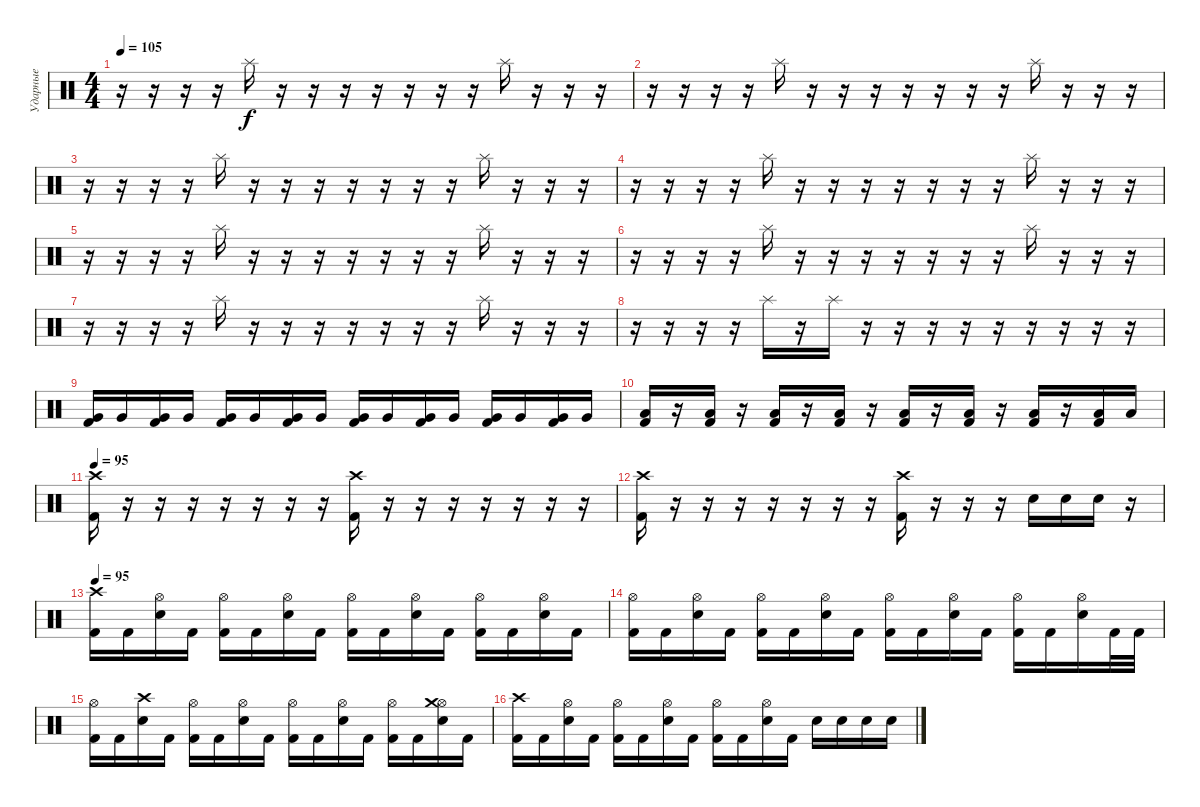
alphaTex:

\track ("Ударные" "Ударные") {instrument percussion}
\staff {score}
\articulation defaults
\ts (4 4)
\tempo 105
\clef neutral
\ks c
r.16{dy f} r.16 r.16 r.16 "Splash (hit)".16 r.16 r.16 r.16 r.16 r.16 r.16 r.16 "Splash (hit)".16 r.16 r.16 r.16 |
r.16 r.16 r.16 r.16 "Splash (hit)".16 r.16 r.16 r.16 r.16 r.16 r.16 r.16 "Splash (hit)".16 r.16 r.16 r.16 |
r.16 r.16 r.16 r.16 "Splash (hit)".16 r.16 r.16 r.16 r.16 r.16 r.16 r.16 "Splash (hit)".16 r.16 r.16 r.16 |
r.16 r.16 r.16 r.16 "Splash (hit)".16 r.16 r.16 r.16 r.16 r.16 r.16 r.16 "Splash (hit)".16 r.16 r.16 r.16 |
r.16 r.16 r.16 r.16 "Splash (hit)".16 r.16 r.16 r.16 r.16 r.16 r.16 r.16 "Splash (hit)".16 r.16 r.16 r.16 |
r.16 r.16 r.16 r.16 "Splash (hit)".16 r.16 r.16 r.16 r.16 r.16 r.16 r.16 "Splash (hit)".16 r.16 r.16 r.16 |
r.16 r.16 r.16 r.16 "Splash (hit)".16 r.16 r.16 r.16 r.16 r.16 r.16 r.16 "Splash (hit)".16 r.16 r.16 r.16 |
r.16 r.16 r.16 r.16 "Splash (hit)".16 r.16 "Splash (hit)".16 r.16 r.16 r.16 r.16 r.16 r.16{volume 7} r.16 r.16 r.16 |
("Very Low Tom (hit)" "Kick (hit) 2").16{volume 16} "Very Low Tom (hit)".16 ("Very Low Tom (hit)" "Kick (hit) 2").16 "Very Low Tom (hit)".16 ("Very Low Tom (hit)" "Kick (hit) 2").16 "Very Low Tom (hit)".16 ("Very Low Tom (hit)" "Kick (hit) 2").16 "Very Low Tom (hit)".16 ("Very Low Tom (hit)" "Kick (hit) 2").16 "Very Low Tom (hit)".16 ("Very Low Tom (hit)" "Kick (hit) 2").16 "Very Low Tom (hit)".16 ("Very Low Tom (hit)" "Kick (hit) 2").16 "Very Low Tom (hit)".16 ("Very Low Tom (hit)" "Kick (hit) 2").16 "Very Low Tom (hit)".16 |
("Low Tom (hit)" "Kick (hit) 2").16 r.16 ("Low Tom (hit)" "Kick (hit) 2").16 r.16 ("Low Tom (hit)" "Kick (hit) 2").16 r.16 ("Low Tom (hit)" "Kick (hit) 2").16 r.16 ("Low Tom (hit)" "Kick (hit) 2").16 r.16 ("Low Tom (hit)" "Kick (hit) 2").16 r.16 ("Low Tom (hit)" "Kick (hit) 2").16 r.16 ("Low Tom (hit)" "Kick (hit) 2").16 "Low Tom (hit)".16 |
\tempo 95
("Kick (hit) 2" "Crash high (hit)").16{volume 16} r.16 r.16 r.16 r.16 r.16 r.16 r.16 ("Kick (hit) 2" "Crash high (hit)").16 r.16 r.16 r.16 r.16 r.16 r.16 r.16 |
("Kick (hit) 2" "Crash high (hit)").16{volume 16} r.16 r.16 r.16 r.16 r.16 r.16 r.16 ("Kick (hit) 2" "Crash high (hit)").16 r.16 r.16 r.16 "Electric Snare (hit)".16 "Electric Snare (hit)".16 "Electric Snare (hit)".16 r.16 |
\tempo 95
("Kick (hit) 2" "Crash high (hit)").16 "Kick (hit) 2".16 ("Electric Snare (hit)" "Hi-Hat (open)").16 "Kick (hit) 2".16 ("Kick (hit) 2" "Hi-Hat (open)").16 "Kick (hit) 2".16 ("Electric Snare (hit)" "Hi-Hat (open)").16 "Kick (hit) 2".16 ("Kick (hit) 2" "Hi-Hat (open)").16 "Kick (hit) 2".16 ("Electric Snare (hit)" "Hi-Hat (open)").16 "Kick (hit) 2".16 ("Kick (hit) 2" "Hi-Hat (open)").16 "Kick (hit) 2".16 ("Electric Snare (hit)" "Hi-Hat (open)").16 "Kick (hit) 2".16 |
("Kick (hit) 2" "Hi-Hat (open)").16 "Kick (hit) 2".16 ("Electric Snare (hit)" "Hi-Hat (open)").16 "Kick (hit) 2".16 ("Kick (hit) 2" "Hi-Hat (open)").16 "Kick (hit) 2".16 ("Electric Snare (hit)" "Hi-Hat (open)").16 "Kick (hit) 2".16 ("Kick (hit) 2" "Hi-Hat (open)").16 "Kick (hit) 2".16 ("Electric Snare (hit)" "Hi-Hat (open)").16 "Kick (hit) 2".16 ("Kick (hit) 2" "Hi-Hat (open)").16 "Kick (hit) 2".16 ("Electric Snare (hit)" "Hi-Hat (open)").16 "Kick (hit) 2".32 "Kick (hit) 2".32 |
("Kick (hit) 2" "Hi-Hat (open)").16 "Kick (hit) 2".16 ("Electric Snare (hit)" "Crash high (hit)").16 "Kick (hit) 2".16 ("Kick (hit) 2" "Hi-Hat (open)").16 "Kick (hit) 2".16 ("Electric Snare (hit)" "Hi-Hat (open)").16 "Kick (hit) 2".16 ("Kick (hit) 2" "Hi-Hat (open)").16 "Kick (hit) 2".16 ("Electric Snare (hit)" "Hi-Hat (open)").16 "Kick (hit) 2".16 ("Kick (hit) 2" "Hi-Hat (open)").16 "Kick (hit) 2".16 ("Electric Snare (hit)" "Hi-Hat (open)" "Crash medium (hit)").16 "Kick (hit) 2".16 |
("Kick (hit) 2" "Crash high (hit)").16 "Kick (hit) 2".16 ("Electric Snare (hit)" "Hi-Hat (open)").16 "Kick (hit) 2".16 ("Kick (hit) 2" "Hi-Hat (open)").16 "Kick (hit) 2".16 ("Electric Snare (hit)" "Hi-Hat (open)").16 "Kick (hit) 2".16 ("Kick (hit) 2" "Hi-Hat (open)").16 "Kick (hit) 2".16 ("Electric Snare (hit)" "Hi-Hat (open)").16 "Kick (hit) 2".16 "Electric Snare (hit)".16 "Electric Snare (hit)".16 "Electric Snare (hit)".16 "Electric Snare (hit)".16
